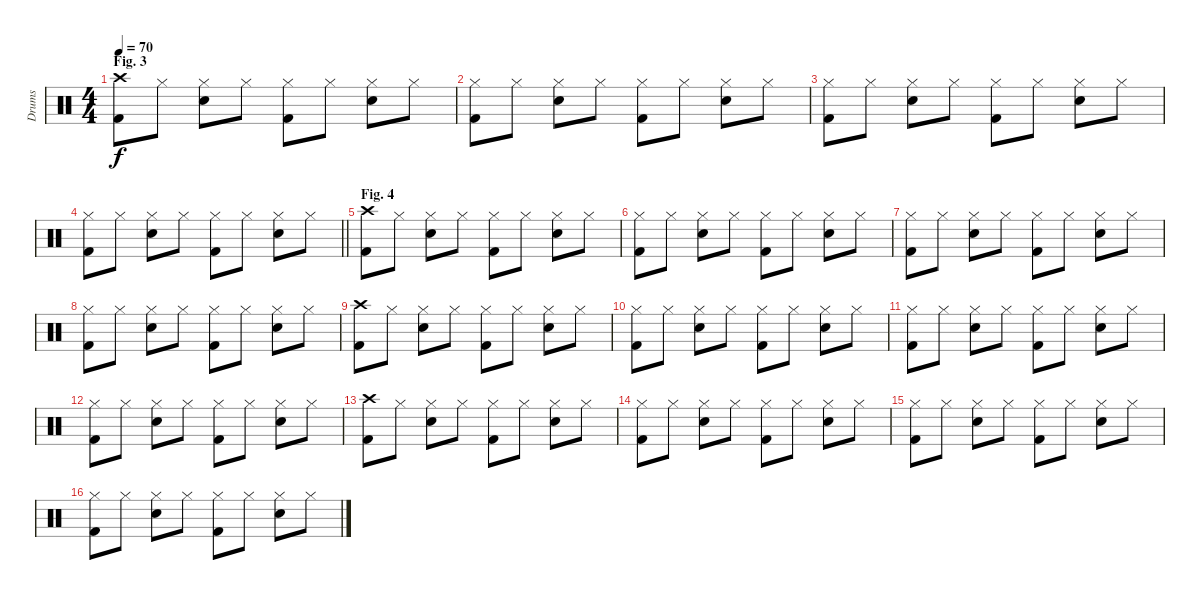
\track ("Drums" "Drums") {instrument percussion}
\staff {score}
\articulation defaults
\ts (4 4)
\section ("" "Fig. 3")
\tempo 70
\clef neutral
\ks c
("Crash high (hit)" "Kick (hit) 2").8{dy f} "Hi-Hat (closed)".8 ("Hi-Hat (closed)" "Snare (hit) 2").8 "Hi-Hat (closed)".8 ("Hi-Hat (closed)" "Kick (hit) 2").8 "Hi-Hat (closed)".8 ("Hi-Hat (closed)" "Snare (hit) 2").8 "Hi-Hat (closed)".8 |
("Hi-Hat (closed)" "Kick (hit) 2").8 "Hi-Hat (closed)".8 ("Hi-Hat (closed)" "Snare (hit) 2").8 "Hi-Hat (closed)".8 ("Hi-Hat (closed)" "Kick (hit) 2").8 "Hi-Hat (closed)".8 ("Hi-Hat (closed)" "Snare (hit) 2").8 "Hi-Hat (closed)".8 |
("Hi-Hat (closed)" "Kick (hit) 2").8 "Hi-Hat (closed)".8 ("Hi-Hat (closed)" "Snare (hit) 2").8 "Hi-Hat (closed)".8 ("Hi-Hat (closed)" "Kick (hit) 2").8 "Hi-Hat (closed)".8 ("Hi-Hat (closed)" "Snare (hit) 2").8 "Hi-Hat (closed)".8 |
\barLineRight lightlight
("Hi-Hat (closed)" "Kick (hit) 2").8 "Hi-Hat (closed)".8 ("Hi-Hat (closed)" "Snare (hit) 2").8 "Hi-Hat (closed)".8 ("Hi-Hat (closed)" "Kick (hit) 2").8 "Hi-Hat (closed)".8 ("Hi-Hat (closed)" "Snare (hit) 2").8 "Hi-Hat (closed)".8 |
\section ("" "Fig. 4")
("Crash high (hit)" "Kick (hit) 2").8 "Hi-Hat (closed)".8 ("Hi-Hat (closed)" "Snare (hit) 2").8 "Hi-Hat (closed)".8 ("Hi-Hat (closed)" "Kick (hit) 2").8 "Hi-Hat (closed)".8 ("Hi-Hat (closed)" "Snare (hit) 2").8 "Hi-Hat (closed)".8 |
("Hi-Hat (closed)" "Kick (hit) 2").8 "Hi-Hat (closed)".8 ("Hi-Hat (closed)" "Snare (hit) 2").8 "Hi-Hat (closed)".8 ("Hi-Hat (closed)" "Kick (hit) 2").8 "Hi-Hat (closed)".8 ("Hi-Hat (closed)" "Snare (hit) 2").8 "Hi-Hat (closed)".8 |
("Hi-Hat (closed)" "Kick (hit) 2").8 "Hi-Hat (closed)".8 ("Hi-Hat (closed)" "Snare (hit) 2").8 "Hi-Hat (closed)".8 ("Hi-Hat (closed)" "Kick (hit) 2").8 "Hi-Hat (closed)".8 ("Hi-Hat (closed)" "Snare (hit) 2").8 "Hi-Hat (closed)".8 |
("Hi-Hat (closed)" "Kick (hit) 2").8 "Hi-Hat (closed)".8 ("Hi-Hat (closed)" "Snare (hit) 2").8 "Hi-Hat (closed)".8 ("Hi-Hat (closed)" "Kick (hit) 2").8 "Hi-Hat (closed)".8 ("Hi-Hat (closed)" "Snare (hit) 2").8 "Hi-Hat (closed)".8 |
("Crash high (hit)" "Kick (hit) 2").8 "Hi-Hat (closed)".8 ("Hi-Hat (closed)" "Snare (hit) 2").8 "Hi-Hat (closed)".8 ("Hi-Hat (closed)" "Kick (hit) 2").8 "Hi-Hat (closed)".8 ("Hi-Hat (closed)" "Snare (hit) 2").8 "Hi-Hat (closed)".8 |
("Hi-Hat (closed)" "Kick (hit) 2").8 "Hi-Hat (closed)".8 ("Hi-Hat (closed)" "Snare (hit) 2").8 "Hi-Hat (closed)".8 ("Hi-Hat (closed)" "Kick (hit) 2").8 "Hi-Hat (closed)".8 ("Hi-Hat (closed)" "Snare (hit) 2").8 "Hi-Hat (closed)".8 |
("Hi-Hat (closed)" "Kick (hit) 2").8 "Hi-Hat (closed)".8 ("Hi-Hat (closed)" "Snare (hit) 2").8 "Hi-Hat (closed)".8 ("Hi-Hat (closed)" "Kick (hit) 2").8 "Hi-Hat (closed)".8 ("Hi-Hat (closed)" "Snare (hit) 2").8 "Hi-Hat (closed)".8 |
("Hi-Hat (closed)" "Kick (hit) 2").8 "Hi-Hat (closed)".8 ("Hi-Hat (closed)" "Snare (hit) 2").8 "Hi-Hat (closed)".8 ("Hi-Hat (closed)" "Kick (hit) 2").8 "Hi-Hat (closed)".8 ("Hi-Hat (closed)" "Snare (hit) 2").8 "Hi-Hat (closed)".8 |
("Crash high (hit)" "Kick (hit) 2").8 "Hi-Hat (closed)".8 ("Hi-Hat (closed)" "Snare (hit) 2").8 "Hi-Hat (closed)".8 ("Hi-Hat (closed)" "Kick (hit) 2").8 "Hi-Hat (closed)".8 ("Hi-Hat (closed)" "Snare (hit) 2").8 "Hi-Hat (closed)".8 |
("Hi-Hat (closed)" "Kick (hit) 2").8 "Hi-Hat (closed)".8 ("Hi-Hat (closed)" "Snare (hit) 2").8 "Hi-Hat (closed)".8 ("Hi-Hat (closed)" "Kick (hit) 2").8 "Hi-Hat (closed)".8 ("Hi-Hat (closed)" "Snare (hit) 2").8 "Hi-Hat (closed)".8 |
("Hi-Hat (closed)" "Kick (hit) 2").8 "Hi-Hat (closed)".8 ("Hi-Hat (closed)" "Snare (hit) 2").8 "Hi-Hat (closed)".8 ("Hi-Hat (closed)" "Kick (hit) 2").8 "Hi-Hat (closed)".8 ("Hi-Hat (closed)" "Snare (hit) 2").8 "Hi-Hat (closed)".8 |
("Hi-Hat (closed)" "Kick (hit) 2").8 "Hi-Hat (closed)".8 ("Hi-Hat (closed)" "Snare (hit) 2").8 "Hi-Hat (closed)".8 ("Hi-Hat (closed)" "Kick (hit) 2").8 "Hi-Hat (closed)".8 ("Hi-Hat (closed)" "Snare (hit) 2").8 "Hi-Hat (closed)".8
